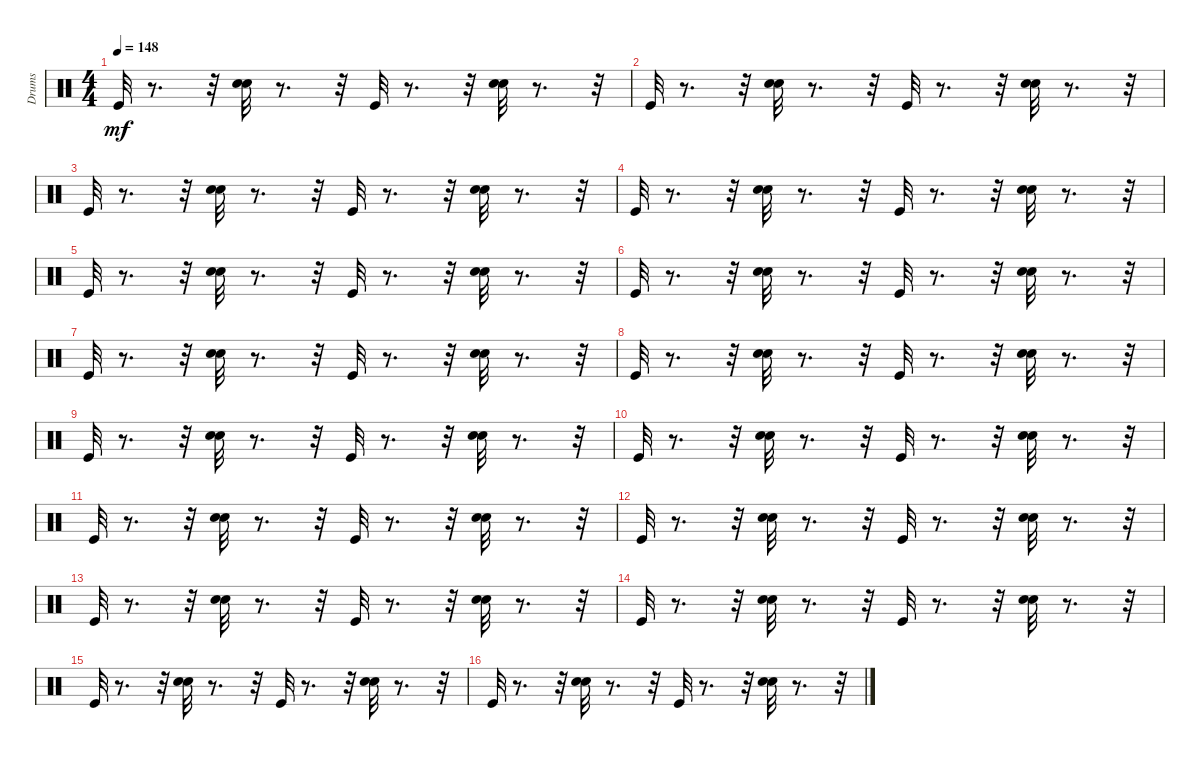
\track ("Drums" "Drums") {instrument percussion}
\staff {score}
\articulation defaults
\ts (4 4)
\tempo 148
\clef neutral
\ks c "Kick (hit)".32{dy mf}
r.8{d} r.32 ("Hand Clap (hit)" "Electric Snare (hit)").32 r.8{d} r.32 "Kick (hit)".32 r.8{d} r.32 ("Hand Clap (hit)" "Electric Snare (hit)").32 r.8{d} r.32 |
"Kick (hit)".32 r.8{d} r.32 ("Hand Clap (hit)" "Electric Snare (hit)").32 r.8{d} r.32 "Kick (hit)".32 r.8{d} r.32 ("Hand Clap (hit)" "Electric Snare (hit)").32 r.8{d} r.32 |
"Kick (hit)".32 r.8{d} r.32 ("Hand Clap (hit)" "Electric Snare (hit)").32 r.8{d} r.32 "Kick (hit)".32 r.8{d} r.32 ("Hand Clap (hit)" "Electric Snare (hit)").32 r.8{d} r.32 |
"Kick (hit)".32 r.8{d} r.32 ("Hand Clap (hit)" "Electric Snare (hit)").32 r.8{d} r.32 "Kick (hit)".32 r.8{d} r.32 ("Hand Clap (hit)" "Electric Snare (hit)").32 r.8{d} r.32 |
"Kick (hit)".32 r.8{d} r.32 ("Hand Clap (hit)" "Electric Snare (hit)").32 r.8{d} r.32 "Kick (hit)".32 r.8{d} r.32 ("Hand Clap (hit)" "Electric Snare (hit)").32 r.8{d} r.32 |
"Kick (hit)".32 r.8{d} r.32 ("Hand Clap (hit)" "Electric Snare (hit)").32 r.8{d} r.32 "Kick (hit)".32 r.8{d} r.32 ("Hand Clap (hit)" "Electric Snare (hit)").32 r.8{d} r.32 |
"Kick (hit)".32 r.8{d} r.32 ("Hand Clap (hit)" "Electric Snare (hit)").32 r.8{d} r.32 "Kick (hit)".32 r.8{d} r.32 ("Hand Clap (hit)" "Electric Snare (hit)").32 r.8{d} r.32 |
"Kick (hit)".32 r.8{d} r.32 ("Hand Clap (hit)" "Electric Snare (hit)").32 r.8{d} r.32 "Kick (hit)".32 r.8{d} r.32 ("Hand Clap (hit)" "Electric Snare (hit)").32 r.8{d} r.32 |
"Kick (hit)".32 r.8{d} r.32 ("Hand Clap (hit)" "Electric Snare (hit)").32 r.8{d} r.32 "Kick (hit)".32 r.8{d} r.32 ("Hand Clap (hit)" "Electric Snare (hit)").32 r.8{d} r.32 |
"Kick (hit)".32 r.8{d} r.32 ("Hand Clap (hit)" "Electric Snare (hit)").32 r.8{d} r.32 "Kick (hit)".32 r.8{d} r.32 ("Hand Clap (hit)" "Electric Snare (hit)").32 r.8{d} r.32 |
"Kick (hit)".32 r.8{d} r.32 ("Hand Clap (hit)" "Electric Snare (hit)").32 r.8{d} r.32 "Kick (hit)".32 r.8{d} r.32 ("Hand Clap (hit)" "Electric Snare (hit)").32 r.8{d} r.32 |
"Kick (hit)".32 r.8{d} r.32 ("Hand Clap (hit)" "Electric Snare (hit)").32 r.8{d} r.32 "Kick (hit)".32 r.8{d} r.32 ("Hand Clap (hit)" "Electric Snare (hit)").32 r.8{d} r.32 |
"Kick (hit)".32 r.8{d} r.32 ("Hand Clap (hit)" "Electric Snare (hit)").32 r.8{d} r.32 "Kick (hit)".32 r.8{d} r.32 ("Hand Clap (hit)" "Electric Snare (hit)").32 r.8{d} r.32 |
"Kick (hit)".32 r.8{d} r.32 ("Hand Clap (hit)" "Electric Snare (hit)").32 r.8{d} r.32 "Kick (hit)".32 r.8{d} r.32 ("Hand Clap (hit)" "Electric Snare (hit)").32 r.8{d} r.32 |
"Kick (hit)".32 r.8{d} r.32 ("Hand Clap (hit)" "Electric Snare (hit)").32 r.8{d} r.32 "Kick (hit)".32 r.8{d} r.32 ("Hand Clap (hit)" "Electric Snare (hit)").32 r.8{d} r.32 |
"Kick (hit)".32 r.8{d} r.32 ("Hand Clap (hit)" "Electric Snare (hit)").32 r.8{d} r.32 "Kick (hit)".32 r.8{d} r.32 ("Hand Clap (hit)" "Electric Snare (hit)").32 r.8{d} r.32
